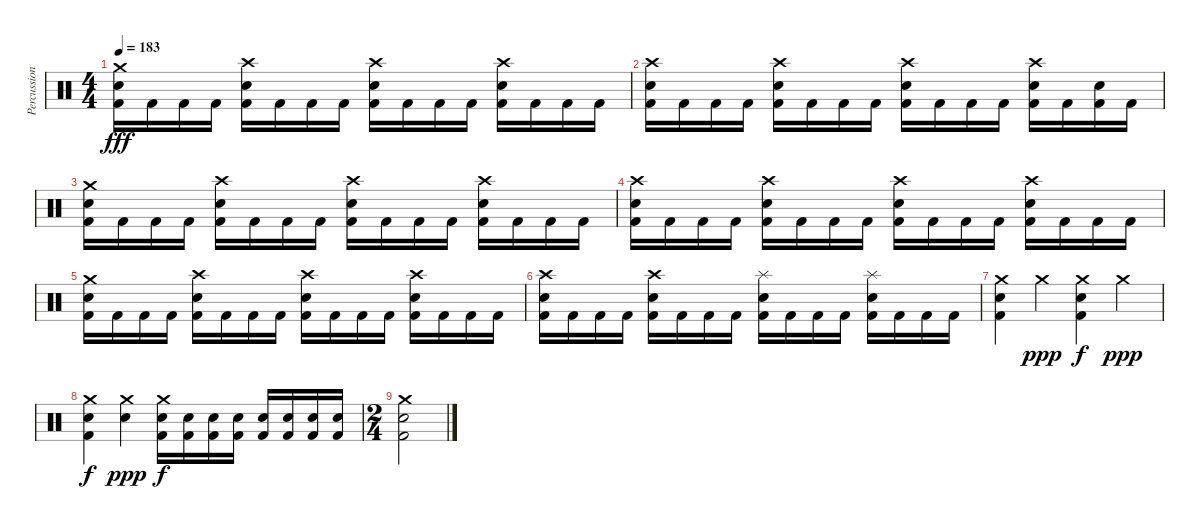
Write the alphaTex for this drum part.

\track ("Percussion" "Percussion") {instrument percussion}
\staff {score}
\articulation defaults
\ts (4 4)
\tempo 183
\clef neutral
\ks aminor
("Crash medium (hit)" "Electric Snare (hit)" "Kick (hit) 2").16{dy fff volume 16} "Kick (hit) 2".16 "Kick (hit) 2".16 "Kick (hit) 2".16 ("Crash high (hit)" "Electric Snare (hit)" "Kick (hit) 2").16 "Kick (hit) 2".16 "Kick (hit) 2".16 "Kick (hit) 2".16 ("Crash high (hit)" "Electric Snare (hit)" "Kick (hit) 2").16 "Kick (hit) 2".16 "Kick (hit) 2".16 "Kick (hit) 2".16 ("Crash high (hit)" "Electric Snare (hit)" "Kick (hit) 2").16 "Kick (hit) 2".16 "Kick (hit) 2".16 "Kick (hit) 2".16 |
("Crash high (hit)" "Electric Snare (hit)" "Kick (hit) 2").16 "Kick (hit) 2".16 "Kick (hit) 2".16 "Kick (hit) 2".16 ("Crash high (hit)" "Electric Snare (hit)" "Kick (hit) 2").16 "Kick (hit) 2".16 "Kick (hit) 2".16 "Kick (hit) 2".16 ("Crash high (hit)" "Electric Snare (hit)" "Kick (hit) 2").16 "Kick (hit) 2".16 "Kick (hit) 2".16 "Kick (hit) 2".16 ("Crash high (hit)" "Electric Snare (hit)" "Kick (hit) 2").16 "Kick (hit) 2".16 ("Electric Snare (hit)" "Kick (hit) 2").16 "Kick (hit) 2".16 |
("Crash medium (hit)" "Electric Snare (hit)" "Kick (hit) 2").16 "Kick (hit) 2".16 "Kick (hit) 2".16 "Kick (hit) 2".16 ("Crash high (hit)" "Electric Snare (hit)" "Kick (hit) 2").16 "Kick (hit) 2".16 "Kick (hit) 2".16 "Kick (hit) 2".16 ("Crash high (hit)" "Electric Snare (hit)" "Kick (hit) 2").16 "Kick (hit) 2".16 "Kick (hit) 2".16 "Kick (hit) 2".16 ("Crash high (hit)" "Electric Snare (hit)" "Kick (hit) 2").16 "Kick (hit) 2".16 "Kick (hit) 2".16 "Kick (hit) 2".16 |
("Crash high (hit)" "Electric Snare (hit)" "Kick (hit) 2").16 "Kick (hit) 2".16 "Kick (hit) 2".16 "Kick (hit) 2".16 ("Crash high (hit)" "Electric Snare (hit)" "Kick (hit) 2").16 "Kick (hit) 2".16 "Kick (hit) 2".16 "Kick (hit) 2".16 ("Crash high (hit)" "Electric Snare (hit)" "Kick (hit) 2").16 "Kick (hit) 2".16 "Kick (hit) 2".16 "Kick (hit) 2".16 ("Crash high (hit)" "Electric Snare (hit)" "Kick (hit) 2").16 "Kick (hit) 2".16 "Kick (hit) 2".16 "Kick (hit) 2".16 |
("Crash medium (hit)" "Electric Snare (hit)" "Kick (hit) 2").16 "Kick (hit) 2".16 "Kick (hit) 2".16 "Kick (hit) 2".16 ("Crash high (hit)" "Electric Snare (hit)" "Kick (hit) 2").16 "Kick (hit) 2".16 "Kick (hit) 2".16 "Kick (hit) 2".16 ("Crash high (hit)" "Electric Snare (hit)" "Kick (hit) 2").16 "Kick (hit) 2".16 "Kick (hit) 2".16 "Kick (hit) 2".16 ("Crash high (hit)" "Electric Snare (hit)" "Kick (hit) 2").16 "Kick (hit) 2".16 "Kick (hit) 2".16 "Kick (hit) 2".16 |
("Crash high (hit)" "Electric Snare (hit)" "Kick (hit) 2").16 "Kick (hit) 2".16 "Kick (hit) 2".16 "Kick (hit) 2".16 ("Crash high (hit)" "Electric Snare (hit)" "Kick (hit) 2").16 "Kick (hit) 2".16 "Kick (hit) 2".16 "Kick (hit) 2".16 ("Splash (hit)" "Electric Snare (hit)" "Kick (hit) 2").16 "Kick (hit) 2".16 "Kick (hit) 2".16 "Kick (hit) 2".16 ("Splash (hit)" "Electric Snare (hit)" "Kick (hit) 2").16 "Kick (hit) 2".16 "Kick (hit) 2".16 "Kick (hit) 2".16 |
("Crash medium (hit)" "Electric Snare (hit)" "Kick (hit) 2").4 "Crash medium (hit)".4{dy ppp} ("Crash medium (hit)" "Electric Snare (hit)" "Kick (hit) 2").4{dy f} "Crash medium (hit)".4{dy ppp} |
("Crash medium (hit)" "Electric Snare (hit)" "Kick (hit) 2").4{dy f} ("Crash medium (hit)" "Electric Snare (hit)").4{dy ppp} ("Crash medium (hit)" "Electric Snare (hit)" "Kick (hit) 2").16{dy f} ("Electric Snare (hit)" "Kick (hit) 2").16 ("Electric Snare (hit)" "Kick (hit) 2").16 ("Electric Snare (hit)" "Kick (hit) 2").16 ("Electric Snare (hit)" "Kick (hit) 2").16 ("Electric Snare (hit)" "Kick (hit) 2").16 ("Electric Snare (hit)" "Kick (hit) 2").16 ("Electric Snare (hit)" "Kick (hit) 2").16 |
\ts (2 4)
("Crash medium (hit)" "Electric Snare (hit)" "Kick (hit) 2").2
